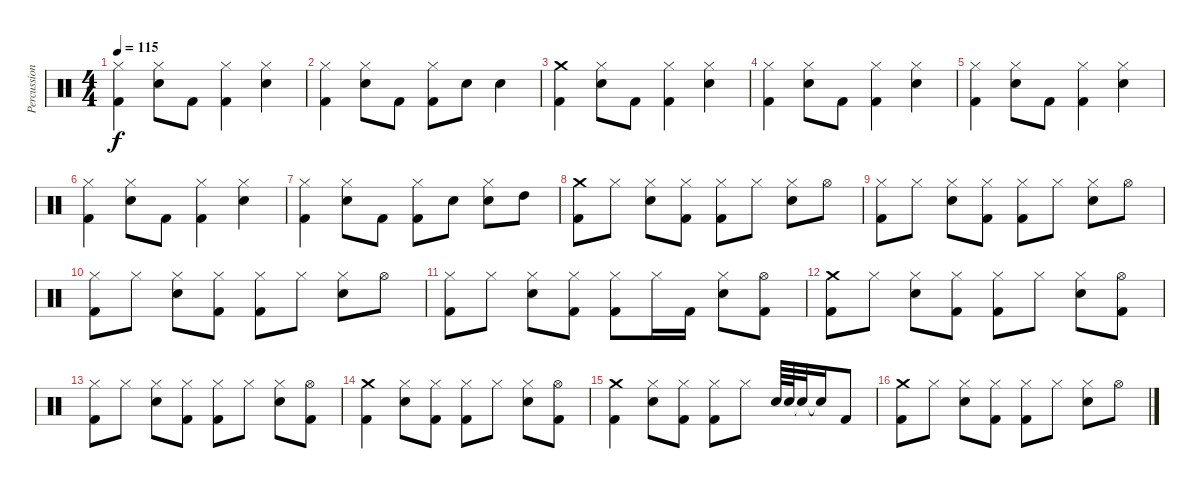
\track ("Percussion" "Percussion") {instrument percussion}
\staff {score}
\articulation defaults
\ts (4 4)
\tempo 115
\clef neutral
\ks c
("Hi-Hat (closed)" "Kick (hit) 2").4{dy f} ("Hi-Hat (closed)" "Electric Snare (hit)").8 "Kick (hit) 2".8 ("Hi-Hat (closed)" "Kick (hit) 2").4 ("Hi-Hat (closed)" "Electric Snare (hit)").4 |
("Hi-Hat (closed)" "Kick (hit) 2").4 ("Hi-Hat (closed)" "Electric Snare (hit)").8 "Kick (hit) 2".8 ("Hi-Hat (closed)" "Kick (hit) 2").8 "Electric Snare (hit)".8 "Electric Snare (hit)".4 |
("Crash medium (hit)" "Kick (hit) 2").4 ("Hi-Hat (closed)" "Electric Snare (hit)").8 "Kick (hit) 2".8 ("Hi-Hat (closed)" "Kick (hit) 2").4 ("Hi-Hat (closed)" "Electric Snare (hit)").4 |
("Hi-Hat (closed)" "Kick (hit) 2").4 ("Hi-Hat (closed)" "Electric Snare (hit)").8 "Kick (hit) 2".8 ("Hi-Hat (closed)" "Kick (hit) 2").4 ("Hi-Hat (closed)" "Electric Snare (hit)").4 |
("Hi-Hat (closed)" "Kick (hit) 2").4 ("Hi-Hat (closed)" "Electric Snare (hit)").8 "Kick (hit) 2".8 ("Hi-Hat (closed)" "Kick (hit) 2").4 ("Hi-Hat (closed)" "Electric Snare (hit)").4 |
("Hi-Hat (closed)" "Kick (hit) 2").4 ("Hi-Hat (closed)" "Electric Snare (hit)").8 "Kick (hit) 2".8 ("Hi-Hat (closed)" "Kick (hit) 2").4 ("Hi-Hat (closed)" "Electric Snare (hit)").4 |
("Hi-Hat (closed)" "Kick (hit) 2").4 ("Hi-Hat (closed)" "Electric Snare (hit)").8 "Kick (hit) 2".8 ("Hi-Hat (closed)" "Kick (hit) 2").8 "Electric Snare (hit)".8 ("Hi-Hat (closed)" "Electric Snare (hit)").8 "High Tom (hit)".8 |
("Crash medium (hit)" "Kick (hit) 2").8 "Hi-Hat (closed)".8 ("Hi-Hat (closed)" "Electric Snare (hit)").8 ("Hi-Hat (closed)" "Kick (hit) 2").8 ("Hi-Hat (closed)" "Kick (hit) 2").8 "Hi-Hat (closed)".8 ("Hi-Hat (closed)" "Electric Snare (hit)").8 "Hi-Hat (open)".8 |
("Hi-Hat (closed)" "Kick (hit) 2").8 "Hi-Hat (closed)".8 ("Hi-Hat (closed)" "Electric Snare (hit)").8 ("Hi-Hat (closed)" "Kick (hit) 2").8 ("Hi-Hat (closed)" "Kick (hit) 2").8 "Hi-Hat (closed)".8 ("Hi-Hat (closed)" "Electric Snare (hit)").8 "Hi-Hat (open)".8 |
("Hi-Hat (closed)" "Kick (hit) 2").8 "Hi-Hat (closed)".8 ("Hi-Hat (closed)" "Electric Snare (hit)").8 ("Hi-Hat (closed)" "Kick (hit) 2").8 ("Hi-Hat (closed)" "Kick (hit) 2").8 "Hi-Hat (closed)".8 ("Hi-Hat (closed)" "Electric Snare (hit)").8 "Hi-Hat (open)".8 |
("Hi-Hat (closed)" "Kick (hit) 2").8 "Hi-Hat (closed)".8 ("Hi-Hat (closed)" "Electric Snare (hit)").8 ("Hi-Hat (closed)" "Kick (hit) 2").8 ("Hi-Hat (closed)" "Kick (hit) 2").8 "Hi-Hat (closed)".16 "Kick (hit) 2".16 ("Hi-Hat (closed)" "Electric Snare (hit)").8 ("Hi-Hat (open)" "Kick (hit) 2").8 |
("Crash medium (hit)" "Kick (hit) 2").8 "Hi-Hat (closed)".8 ("Hi-Hat (closed)" "Electric Snare (hit)").8 ("Hi-Hat (closed)" "Kick (hit) 2").8 ("Hi-Hat (closed)" "Kick (hit) 2").8 "Hi-Hat (closed)".8 ("Hi-Hat (closed)" "Electric Snare (hit)").8 ("Hi-Hat (open)" "Kick (hit) 2").8 |
("Hi-Hat (closed)" "Kick (hit) 2").8 "Hi-Hat (closed)".8 ("Hi-Hat (closed)" "Electric Snare (hit)").8 ("Hi-Hat (closed)" "Kick (hit) 2").8 ("Hi-Hat (closed)" "Kick (hit) 2").8 "Hi-Hat (closed)".8 ("Hi-Hat (closed)" "Electric Snare (hit)").8 ("Hi-Hat (open)" "Kick (hit) 2").8 |
("Crash medium (hit)" "Kick (hit) 2").4 ("Hi-Hat (closed)" "Electric Snare (hit)").8 ("Hi-Hat (closed)" "Kick (hit) 2").8 ("Hi-Hat (closed)" "Kick (hit) 2").8 "Hi-Hat (closed)".8 ("Hi-Hat (closed)" "Electric Snare (hit)").8 ("Hi-Hat (open)" "Kick (hit) 2").8 |
("Crash medium (hit)" "Kick (hit) 2").4 ("Hi-Hat (closed)" "Electric Snare (hit)").8 ("Hi-Hat (closed)" "Kick (hit) 2").8 ("Hi-Hat (closed)" "Kick (hit) 2").8 "Hi-Hat (closed)".8 "Electric Snare (hit)".64 "Electric Snare (hit)".64 "Snare (hit)"{t}.32 "Snare (hit)"{t}.16 "Kick (hit) 2".8 |
("Crash medium (hit)" "Kick (hit) 2").8 "Hi-Hat (closed)".8 ("Hi-Hat (closed)" "Electric Snare (hit)").8 ("Hi-Hat (closed)" "Kick (hit) 2").8 ("Hi-Hat (closed)" "Kick (hit) 2").8 "Hi-Hat (closed)".8 ("Hi-Hat (closed)" "Electric Snare (hit)").8 "Hi-Hat (open)".8
